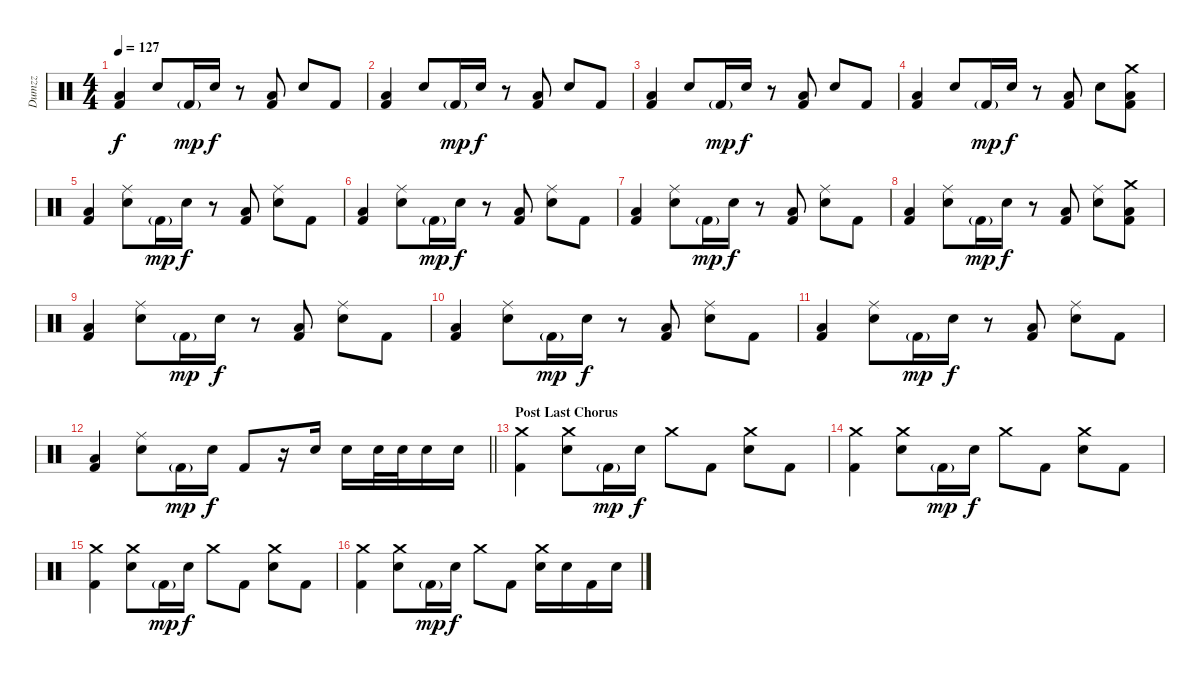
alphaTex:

\track ("Dumzz" "Dumzz") {instrument percussion}
\staff {score}
\articulation defaults
\ts (4 4)
\tempo 127
\clef neutral
\ks c
("Low Tom (hit)" "Kick (hit) 2").4{dy f} "Snare (hit) 2".8 "Kick (hit) 2"{g}.16{dy mp} "Snare (hit) 2".16{dy f} r.8 ("Low Tom (hit)" "Kick (hit) 2").8 "Snare (hit) 2".8 "Kick (hit) 2".8 |
("Low Tom (hit)" "Kick (hit) 2").4 "Snare (hit) 2".8 "Kick (hit) 2"{g}.16{dy mp} "Snare (hit) 2".16{dy f} r.8 ("Low Tom (hit)" "Kick (hit) 2").8 "Snare (hit) 2".8 "Kick (hit) 2".8 |
("Low Tom (hit)" "Kick (hit) 2").4 "Snare (hit) 2".8 "Kick (hit) 2"{g}.16{dy mp} "Snare (hit) 2".16{dy f} r.8 ("Low Tom (hit)" "Kick (hit) 2").8 "Snare (hit) 2".8 "Kick (hit) 2".8 |
("Low Tom (hit)" "Kick (hit) 2").4 "Snare (hit) 2".8 "Kick (hit) 2"{g}.16{dy mp} "Snare (hit) 2".16{dy f} r.8 ("Low Tom (hit)" "Kick (hit) 2").8 "Snare (hit) 2".8 ("Crash medium (hit)" "Low Tom (hit)" "Kick (hit) 2").8 |
("Low Tom (hit)" "Kick (hit) 2").4 ("Ride (middle)" "Snare (hit) 2").8 "Kick (hit) 2"{g}.16{dy mp} "Snare (hit) 2".16{dy f} r.8 ("Low Tom (hit)" "Kick (hit) 2").8 ("Ride (middle)" "Snare (hit) 2").8 "Kick (hit) 2".8 |
("Low Tom (hit)" "Kick (hit) 2").4 ("Ride (middle)" "Snare (hit) 2").8 "Kick (hit) 2"{g}.16{dy mp} "Snare (hit) 2".16{dy f} r.8 ("Low Tom (hit)" "Kick (hit) 2").8 ("Ride (middle)" "Snare (hit) 2").8 "Kick (hit) 2".8 |
("Low Tom (hit)" "Kick (hit) 2").4 ("Ride (middle)" "Snare (hit) 2").8 "Kick (hit) 2"{g}.16{dy mp} "Snare (hit) 2".16{dy f} r.8 ("Low Tom (hit)" "Kick (hit) 2").8 ("Ride (middle)" "Snare (hit) 2").8 "Kick (hit) 2".8 |
("Low Tom (hit)" "Kick (hit) 2").4 ("Ride (middle)" "Snare (hit) 2").8 "Kick (hit) 2"{g}.16{dy mp} "Snare (hit) 2".16{dy f} r.8 ("Low Tom (hit)" "Kick (hit) 2").8 ("Ride (middle)" "Snare (hit) 2").8 ("Crash medium (hit)" "Low Tom (hit)" "Kick (hit) 2").8 |
("Low Tom (hit)" "Kick (hit) 2").4 ("Ride (middle)" "Snare (hit) 2").8 "Kick (hit) 2"{g}.16{dy mp} "Snare (hit) 2".16{dy f} r.8 ("Low Tom (hit)" "Kick (hit) 2").8 ("Ride (middle)" "Snare (hit) 2").8 "Kick (hit) 2".8 |
("Low Tom (hit)" "Kick (hit) 2").4 ("Ride (middle)" "Snare (hit) 2").8 "Kick (hit) 2"{g}.16{dy mp} "Snare (hit) 2".16{dy f} r.8 ("Low Tom (hit)" "Kick (hit) 2").8 ("Ride (middle)" "Snare (hit) 2").8 "Kick (hit) 2".8 |
("Low Tom (hit)" "Kick (hit) 2").4 ("Ride (middle)" "Snare (hit) 2").8 "Kick (hit) 2"{g}.16{dy mp} "Snare (hit) 2".16{dy f} r.8 ("Low Tom (hit)" "Kick (hit) 2").8 ("Ride (middle)" "Snare (hit) 2").8 "Kick (hit) 2".8 |
\barLineRight lightlight
("Low Tom (hit)" "Kick (hit) 2").4 ("Ride (middle)" "Snare (hit) 2").8 "Kick (hit) 2"{g}.16{dy mp} "Snare (hit) 2".16{dy f} "Kick (hit) 2".8 r.16 "Snare (hit) 2".16 "Snare (hit) 2".16 "Snare (hit) 2".32 "Snare (hit) 2".32 "Snare (hit) 2".16 "Snare (hit) 2".16 |
\section ("" "Post Last Chorus")
("Crash medium (hit)" "Kick (hit) 2").4 ("Crash medium (hit)" "Snare (hit) 2").8 "Kick (hit) 2"{g}.16{dy mp} "Snare (hit) 2".16{dy f} "Crash medium (hit)".8 "Kick (hit) 2".8 ("Crash medium (hit)" "Snare (hit) 2").8 "Kick (hit) 2".8 |
("Crash medium (hit)" "Kick (hit) 2").4 ("Crash medium (hit)" "Snare (hit) 2").8 "Kick (hit) 2"{g}.16{dy mp} "Snare (hit) 2".16{dy f} "Crash medium (hit)".8 "Kick (hit) 2".8 ("Crash medium (hit)" "Snare (hit) 2").8 "Kick (hit) 2".8 |
("Crash medium (hit)" "Kick (hit) 2").4 ("Crash medium (hit)" "Snare (hit) 2").8 "Kick (hit) 2"{g}.16{dy mp} "Snare (hit) 2".16{dy f} "Crash medium (hit)".8 "Kick (hit) 2".8 ("Crash medium (hit)" "Snare (hit) 2").8 "Kick (hit) 2".8 |
("Crash medium (hit)" "Kick (hit) 2").4 ("Crash medium (hit)" "Snare (hit) 2").8 "Kick (hit) 2"{g}.16{dy mp} "Snare (hit) 2".16{dy f} "Crash medium (hit)".8 "Kick (hit) 2".8 ("Crash medium (hit)" "Snare (hit) 2").16 "Snare (hit) 2".16 "Kick (hit) 2".16 "Snare (hit) 2".16
